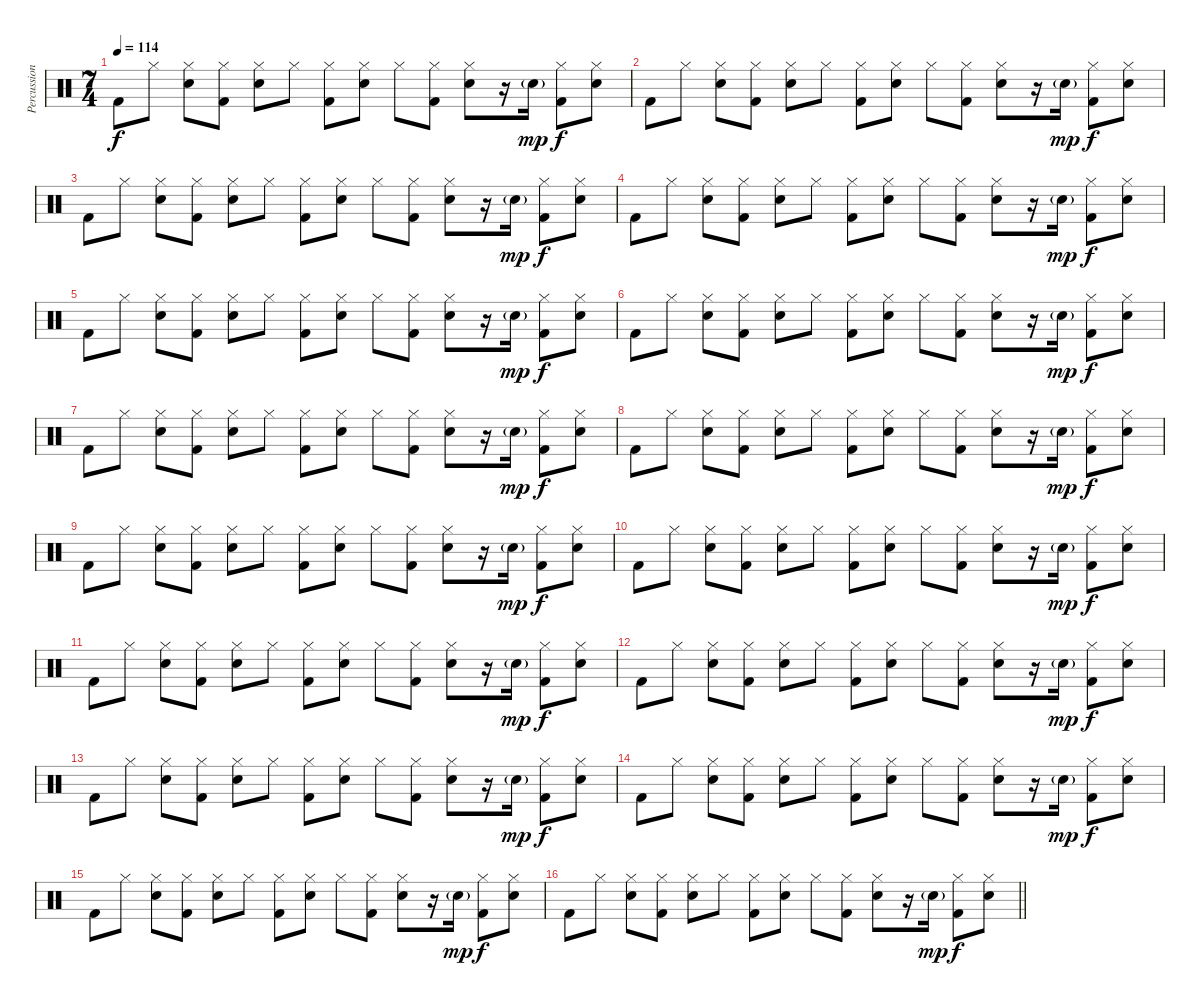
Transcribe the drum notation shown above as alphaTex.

\track ("Percussion" "Percussion") {instrument percussion}
\staff {score}
\articulation defaults
\ts (7 4)
\tempo 114
\clef neutral
\ks c "Kick (hit) 2".8{dy f} "Hi-Hat (closed)".8
("Hi-Hat (closed)" "Snare (hit) 2").8 ("Hi-Hat (closed)" "Kick (hit) 2").8 ("Hi-Hat (closed)" "Snare (hit) 2").8 "Hi-Hat (closed)".8 ("Hi-Hat (closed)" "Kick (hit) 2").8 ("Hi-Hat (closed)" "Snare (hit) 2").8 "Hi-Hat (closed)".8 ("Hi-Hat (closed)" "Kick (hit) 2").8 ("Hi-Hat (closed)" "Snare (hit) 2").8 r.16 "Snare (hit) 2"{g}.16{dy mp} ("Hi-Hat (closed)" "Kick (hit) 2").8{dy f} ("Hi-Hat (closed)" "Snare (hit) 2").8 |
"Kick (hit) 2".8 "Hi-Hat (closed)".8 ("Hi-Hat (closed)" "Snare (hit) 2").8 ("Hi-Hat (closed)" "Kick (hit) 2").8 ("Hi-Hat (closed)" "Snare (hit) 2").8 "Hi-Hat (closed)".8 ("Hi-Hat (closed)" "Kick (hit) 2").8 ("Hi-Hat (closed)" "Snare (hit) 2").8 "Hi-Hat (closed)".8 ("Hi-Hat (closed)" "Kick (hit) 2").8 ("Hi-Hat (closed)" "Snare (hit) 2").8 r.16 "Snare (hit) 2"{g}.16{dy mp} ("Hi-Hat (closed)" "Kick (hit) 2").8{dy f} ("Hi-Hat (closed)" "Snare (hit) 2").8 |
"Kick (hit) 2".8 "Hi-Hat (closed)".8 ("Hi-Hat (closed)" "Snare (hit) 2").8 ("Hi-Hat (closed)" "Kick (hit) 2").8 ("Hi-Hat (closed)" "Snare (hit) 2").8 "Hi-Hat (closed)".8 ("Hi-Hat (closed)" "Kick (hit) 2").8 ("Hi-Hat (closed)" "Snare (hit) 2").8 "Hi-Hat (closed)".8 ("Hi-Hat (closed)" "Kick (hit) 2").8 ("Hi-Hat (closed)" "Snare (hit) 2").8 r.16 "Snare (hit) 2"{g}.16{dy mp} ("Hi-Hat (closed)" "Kick (hit) 2").8{dy f} ("Hi-Hat (closed)" "Snare (hit) 2").8 |
"Kick (hit) 2".8 "Hi-Hat (closed)".8 ("Hi-Hat (closed)" "Snare (hit) 2").8 ("Hi-Hat (closed)" "Kick (hit) 2").8 ("Hi-Hat (closed)" "Snare (hit) 2").8 "Hi-Hat (closed)".8 ("Hi-Hat (closed)" "Kick (hit) 2").8 ("Hi-Hat (closed)" "Snare (hit) 2").8 "Hi-Hat (closed)".8 ("Hi-Hat (closed)" "Kick (hit) 2").8 ("Hi-Hat (closed)" "Snare (hit) 2").8 r.16 "Snare (hit) 2"{g}.16{dy mp} ("Hi-Hat (closed)" "Kick (hit) 2").8{dy f} ("Hi-Hat (closed)" "Snare (hit) 2").8 |
"Kick (hit) 2".8 "Hi-Hat (closed)".8 ("Hi-Hat (closed)" "Snare (hit) 2").8 ("Hi-Hat (closed)" "Kick (hit) 2").8 ("Hi-Hat (closed)" "Snare (hit) 2").8 "Hi-Hat (closed)".8 ("Hi-Hat (closed)" "Kick (hit) 2").8 ("Hi-Hat (closed)" "Snare (hit) 2").8 "Hi-Hat (closed)".8 ("Hi-Hat (closed)" "Kick (hit) 2").8 ("Hi-Hat (closed)" "Snare (hit) 2").8 r.16 "Snare (hit) 2"{g}.16{dy mp} ("Hi-Hat (closed)" "Kick (hit) 2").8{dy f} ("Hi-Hat (closed)" "Snare (hit) 2").8 |
"Kick (hit) 2".8 "Hi-Hat (closed)".8 ("Hi-Hat (closed)" "Snare (hit) 2").8 ("Hi-Hat (closed)" "Kick (hit) 2").8 ("Hi-Hat (closed)" "Snare (hit) 2").8 "Hi-Hat (closed)".8 ("Hi-Hat (closed)" "Kick (hit) 2").8 ("Hi-Hat (closed)" "Snare (hit) 2").8 "Hi-Hat (closed)".8 ("Hi-Hat (closed)" "Kick (hit) 2").8 ("Hi-Hat (closed)" "Snare (hit) 2").8 r.16 "Snare (hit) 2"{g}.16{dy mp} ("Hi-Hat (closed)" "Kick (hit) 2").8{dy f} ("Hi-Hat (closed)" "Snare (hit) 2").8 |
"Kick (hit) 2".8 "Hi-Hat (closed)".8 ("Hi-Hat (closed)" "Snare (hit) 2").8 ("Hi-Hat (closed)" "Kick (hit) 2").8 ("Hi-Hat (closed)" "Snare (hit) 2").8 "Hi-Hat (closed)".8 ("Hi-Hat (closed)" "Kick (hit) 2").8 ("Hi-Hat (closed)" "Snare (hit) 2").8 "Hi-Hat (closed)".8 ("Hi-Hat (closed)" "Kick (hit) 2").8 ("Hi-Hat (closed)" "Snare (hit) 2").8 r.16 "Snare (hit) 2"{g}.16{dy mp} ("Hi-Hat (closed)" "Kick (hit) 2").8{dy f} ("Hi-Hat (closed)" "Snare (hit) 2").8 |
"Kick (hit) 2".8 "Hi-Hat (closed)".8 ("Hi-Hat (closed)" "Snare (hit) 2").8 ("Hi-Hat (closed)" "Kick (hit) 2").8 ("Hi-Hat (closed)" "Snare (hit) 2").8 "Hi-Hat (closed)".8 ("Hi-Hat (closed)" "Kick (hit) 2").8 ("Hi-Hat (closed)" "Snare (hit) 2").8 "Hi-Hat (closed)".8 ("Hi-Hat (closed)" "Kick (hit) 2").8 ("Hi-Hat (closed)" "Snare (hit) 2").8 r.16 "Snare (hit) 2"{g}.16{dy mp} ("Hi-Hat (closed)" "Kick (hit) 2").8{dy f} ("Hi-Hat (closed)" "Snare (hit) 2").8 |
"Kick (hit) 2".8 "Hi-Hat (closed)".8 ("Hi-Hat (closed)" "Snare (hit) 2").8 ("Hi-Hat (closed)" "Kick (hit) 2").8 ("Hi-Hat (closed)" "Snare (hit) 2").8 "Hi-Hat (closed)".8 ("Hi-Hat (closed)" "Kick (hit) 2").8 ("Hi-Hat (closed)" "Snare (hit) 2").8 "Hi-Hat (closed)".8 ("Hi-Hat (closed)" "Kick (hit) 2").8 ("Hi-Hat (closed)" "Snare (hit) 2").8 r.16 "Snare (hit) 2"{g}.16{dy mp} ("Hi-Hat (closed)" "Kick (hit) 2").8{dy f} ("Hi-Hat (closed)" "Snare (hit) 2").8 |
"Kick (hit) 2".8 "Hi-Hat (closed)".8 ("Hi-Hat (closed)" "Snare (hit) 2").8 ("Hi-Hat (closed)" "Kick (hit) 2").8 ("Hi-Hat (closed)" "Snare (hit) 2").8 "Hi-Hat (closed)".8 ("Hi-Hat (closed)" "Kick (hit) 2").8 ("Hi-Hat (closed)" "Snare (hit) 2").8 "Hi-Hat (closed)".8 ("Hi-Hat (closed)" "Kick (hit) 2").8 ("Hi-Hat (closed)" "Snare (hit) 2").8 r.16 "Snare (hit) 2"{g}.16{dy mp} ("Hi-Hat (closed)" "Kick (hit) 2").8{dy f} ("Hi-Hat (closed)" "Snare (hit) 2").8 |
"Kick (hit) 2".8 "Hi-Hat (closed)".8 ("Hi-Hat (closed)" "Snare (hit) 2").8 ("Hi-Hat (closed)" "Kick (hit) 2").8 ("Hi-Hat (closed)" "Snare (hit) 2").8 "Hi-Hat (closed)".8 ("Hi-Hat (closed)" "Kick (hit) 2").8 ("Hi-Hat (closed)" "Snare (hit) 2").8 "Hi-Hat (closed)".8 ("Hi-Hat (closed)" "Kick (hit) 2").8 ("Hi-Hat (closed)" "Snare (hit) 2").8 r.16 "Snare (hit) 2"{g}.16{dy mp} ("Hi-Hat (closed)" "Kick (hit) 2").8{dy f} ("Hi-Hat (closed)" "Snare (hit) 2").8 |
"Kick (hit) 2".8 "Hi-Hat (closed)".8 ("Hi-Hat (closed)" "Snare (hit) 2").8 ("Hi-Hat (closed)" "Kick (hit) 2").8 ("Hi-Hat (closed)" "Snare (hit) 2").8 "Hi-Hat (closed)".8 ("Hi-Hat (closed)" "Kick (hit) 2").8 ("Hi-Hat (closed)" "Snare (hit) 2").8 "Hi-Hat (closed)".8 ("Hi-Hat (closed)" "Kick (hit) 2").8 ("Hi-Hat (closed)" "Snare (hit) 2").8 r.16 "Snare (hit) 2"{g}.16{dy mp} ("Hi-Hat (closed)" "Kick (hit) 2").8{dy f} ("Hi-Hat (closed)" "Snare (hit) 2").8 |
"Kick (hit) 2".8 "Hi-Hat (closed)".8 ("Hi-Hat (closed)" "Snare (hit) 2").8 ("Hi-Hat (closed)" "Kick (hit) 2").8 ("Hi-Hat (closed)" "Snare (hit) 2").8 "Hi-Hat (closed)".8 ("Hi-Hat (closed)" "Kick (hit) 2").8 ("Hi-Hat (closed)" "Snare (hit) 2").8 "Hi-Hat (closed)".8 ("Hi-Hat (closed)" "Kick (hit) 2").8 ("Hi-Hat (closed)" "Snare (hit) 2").8 r.16 "Snare (hit) 2"{g}.16{dy mp} ("Hi-Hat (closed)" "Kick (hit) 2").8{dy f} ("Hi-Hat (closed)" "Snare (hit) 2").8 |
"Kick (hit) 2".8 "Hi-Hat (closed)".8 ("Hi-Hat (closed)" "Snare (hit) 2").8 ("Hi-Hat (closed)" "Kick (hit) 2").8 ("Hi-Hat (closed)" "Snare (hit) 2").8 "Hi-Hat (closed)".8 ("Hi-Hat (closed)" "Kick (hit) 2").8 ("Hi-Hat (closed)" "Snare (hit) 2").8 "Hi-Hat (closed)".8 ("Hi-Hat (closed)" "Kick (hit) 2").8 ("Hi-Hat (closed)" "Snare (hit) 2").8 r.16 "Snare (hit) 2"{g}.16{dy mp} ("Hi-Hat (closed)" "Kick (hit) 2").8{dy f} ("Hi-Hat (closed)" "Snare (hit) 2").8 |
"Kick (hit) 2".8 "Hi-Hat (closed)".8 ("Hi-Hat (closed)" "Snare (hit) 2").8 ("Hi-Hat (closed)" "Kick (hit) 2").8 ("Hi-Hat (closed)" "Snare (hit) 2").8 "Hi-Hat (closed)".8 ("Hi-Hat (closed)" "Kick (hit) 2").8 ("Hi-Hat (closed)" "Snare (hit) 2").8 "Hi-Hat (closed)".8 ("Hi-Hat (closed)" "Kick (hit) 2").8 ("Hi-Hat (closed)" "Snare (hit) 2").8 r.16 "Snare (hit) 2"{g}.16{dy mp} ("Hi-Hat (closed)" "Kick (hit) 2").8{dy f} ("Hi-Hat (closed)" "Snare (hit) 2").8 |
\barLineRight lightlight "Kick (hit) 2".8 "Hi-Hat (closed)".8
("Hi-Hat (closed)" "Snare (hit) 2").8 ("Hi-Hat (closed)" "Kick (hit) 2").8 ("Hi-Hat (closed)" "Snare (hit) 2").8 "Hi-Hat (closed)".8 ("Hi-Hat (closed)" "Kick (hit) 2").8 ("Hi-Hat (closed)" "Snare (hit) 2").8 "Hi-Hat (closed)".8 ("Hi-Hat (closed)" "Kick (hit) 2").8 ("Hi-Hat (closed)" "Snare (hit) 2").8 r.16 "Snare (hit) 2"{g}.16{dy mp} ("Hi-Hat (closed)" "Kick (hit) 2").8{dy f} ("Hi-Hat (closed)" "Snare (hit) 2").8
